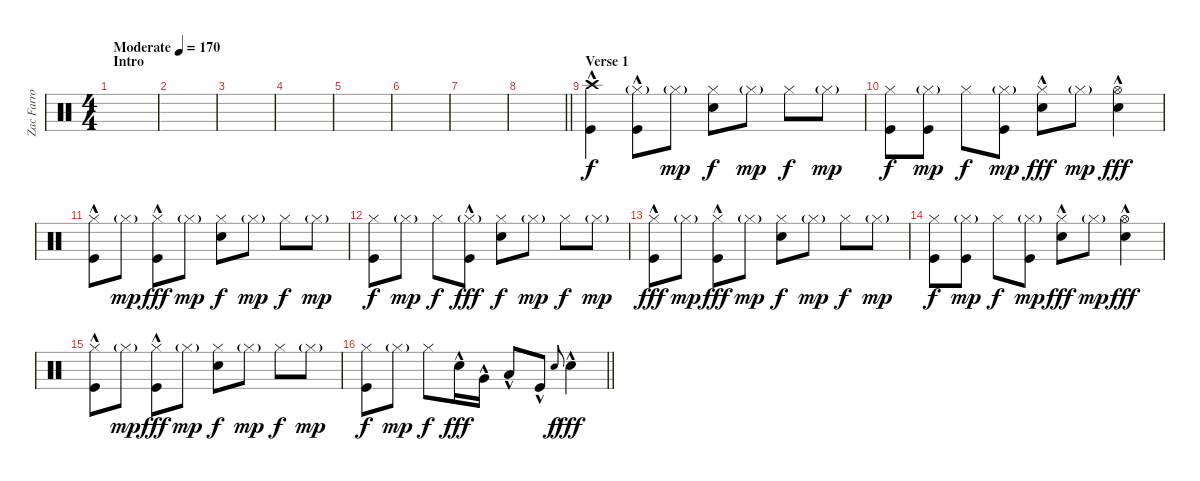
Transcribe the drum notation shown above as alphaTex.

\track ("Zac Farro (Drums)" "Zac Farro ") {instrument percussion}
\staff {score}
\articulation defaults
\ts (4 4)
\section ("" "Intro")
\tempo (170 "Moderate")
\clef neutral
\ks c
|
|
|
|
|
|
|
\barLineRight lightlight
|
\section ("" "Verse 1")
("Crash high (hit)"{hac} "Kick (hit)"{hac}).4 ("Hi-Hat (closed)"{g} "Kick (hit)"{hac}).8 "Hi-Hat (closed)"{g}.8{dy mp} ("Hi-Hat (closed)" "Electric Snare (hit)").8{dy f} "Hi-Hat (closed)"{g}.8{dy mp} "Hi-Hat (closed)".8{dy f} "Hi-Hat (closed)"{g}.8{dy mp} |
("Hi-Hat (closed)" "Kick (hit)").8{dy f} ("Hi-Hat (closed)"{g} "Kick (hit)").8{dy mp} "Hi-Hat (closed)".8{dy f} ("Hi-Hat (closed)"{g} "Kick (hit)").8{dy mp} ("Hi-Hat (closed)" "Electric Snare (hit)"{hac}).8{dy fff} "Hi-Hat (closed)"{g}.8{dy mp} ("Hi-Hat (open)"{hac} "Electric Snare (hit)"{hac}).4{dy fff} |
("Hi-Hat (closed)" "Kick (hit)"{hac}).8 "Hi-Hat (closed)"{g}.8{dy mp} ("Hi-Hat (closed)" "Kick (hit)"{hac}).8{dy fff} "Hi-Hat (closed)"{g}.8{dy mp} ("Hi-Hat (closed)" "Electric Snare (hit)").8{dy f} "Hi-Hat (closed)"{g}.8{dy mp} "Hi-Hat (closed)".8{dy f} "Hi-Hat (closed)"{g}.8{dy mp} |
("Hi-Hat (closed)" "Kick (hit)").8{dy f} "Hi-Hat (closed)"{g}.8{dy mp} "Hi-Hat (closed)".8{dy f} ("Hi-Hat (closed)"{g} "Kick (hit)"{hac}).8{dy fff} ("Hi-Hat (closed)" "Electric Snare (hit)").8{dy f} "Hi-Hat (closed)"{g}.8{dy mp} "Hi-Hat (closed)".8{dy f} "Hi-Hat (closed)"{g}.8{dy mp} |
("Hi-Hat (closed)" "Kick (hit)"{hac}).8{dy fff} "Hi-Hat (closed)"{g}.8{dy mp} ("Hi-Hat (closed)" "Kick (hit)"{hac}).8{dy fff} "Hi-Hat (closed)"{g}.8{dy mp} ("Hi-Hat (closed)" "Electric Snare (hit)").8{dy f} "Hi-Hat (closed)"{g}.8{dy mp} "Hi-Hat (closed)".8{dy f} "Hi-Hat (closed)"{g}.8{dy mp} |
("Hi-Hat (closed)" "Kick (hit)").8{dy f} ("Hi-Hat (closed)"{g} "Kick (hit)").8{dy mp} "Hi-Hat (closed)".8{dy f} ("Hi-Hat (closed)"{g} "Kick (hit)").8{dy mp} ("Hi-Hat (closed)" "Electric Snare (hit)"{hac}).8{dy fff} "Hi-Hat (closed)"{g}.8{dy mp} ("Hi-Hat (open)"{hac} "Electric Snare (hit)"{hac}).4{dy fff} |
("Hi-Hat (closed)" "Kick (hit)"{hac}).8 "Hi-Hat (closed)"{g}.8{dy mp} ("Hi-Hat (closed)" "Kick (hit)"{hac}).8{dy fff} "Hi-Hat (closed)"{g}.8{dy mp} ("Hi-Hat (closed)" "Electric Snare (hit)").8{dy f} "Hi-Hat (closed)"{g}.8{dy mp} "Hi-Hat (closed)".8{dy f} "Hi-Hat (closed)"{g}.8{dy mp} |
\barLineRight lightlight
("Hi-Hat (closed)" "Kick (hit)").8{dy f} "Hi-Hat (closed)"{g}.8{dy mp} "Hi-Hat (closed)".8{dy f} "Electric Snare (hit)"{hac}.16{dy fff} "Very Low Tom (hit)"{hac}.16 "Low Floor Tom (hit)"{hac}.8 "Kick (hit)"{hac}.8 "Electric Snare (hit)".8{gr onbeat dy f} "Electric Snare (hit)"{hac}.4{dy fff}
